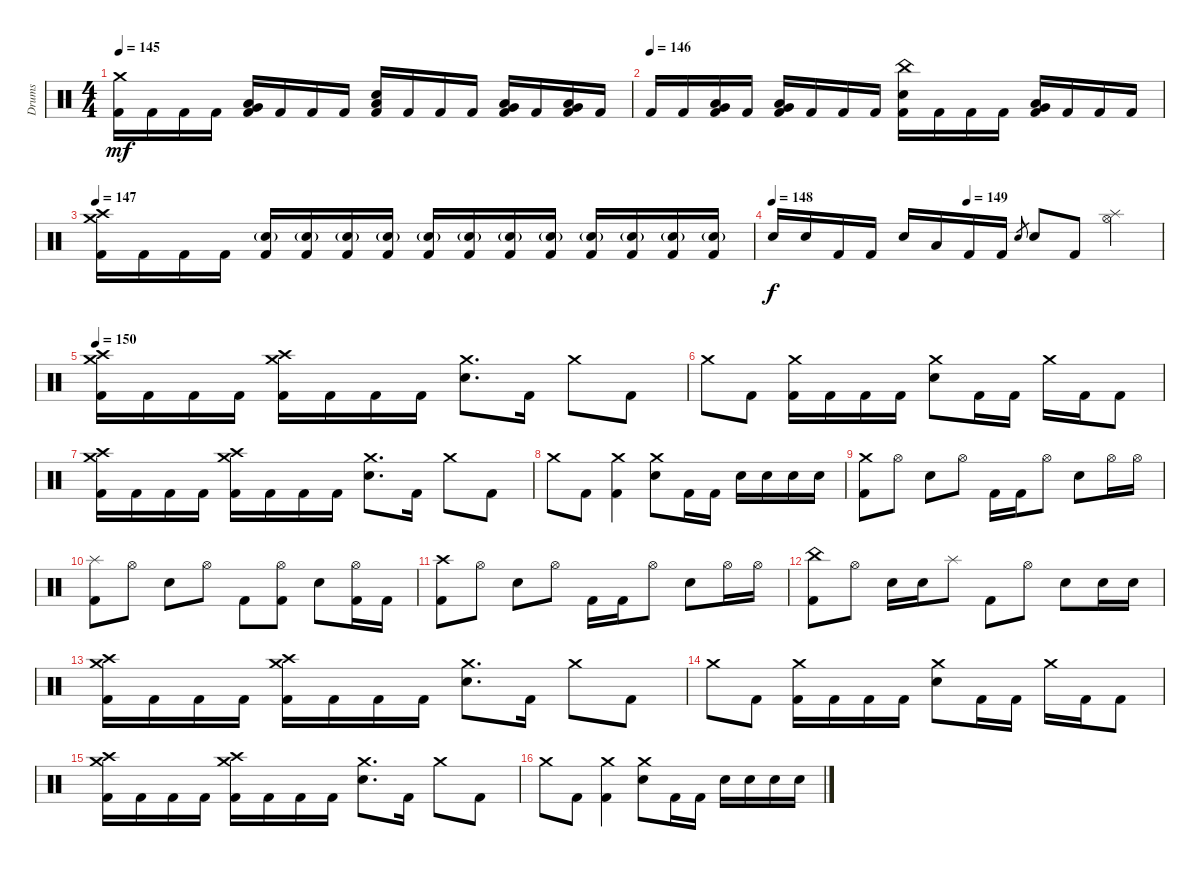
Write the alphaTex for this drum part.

\track ("Drums" "Drums") {instrument percussion}
\staff {score}
\articulation defaults
\ts (4 4)
\tempo 145
\clef neutral
\ks c
("Crash medium (hit)" "Kick (hit) 2").16{dy mf} "Kick (hit) 2".16 "Kick (hit) 2".16 "Kick (hit) 2".16 ("Low Tom (hit)" "Very Low Tom (hit)" "Kick (hit) 2").16 "Kick (hit) 2".16 "Kick (hit) 2".16 "Kick (hit) 2".16 ("Low Tom (hit)" "Electric Snare (hit)" "Kick (hit) 2").16 "Kick (hit) 2".16 "Kick (hit) 2".16 "Kick (hit) 2".16 ("Low Tom (hit)" "Very Low Tom (hit)" "Kick (hit) 2").16 "Kick (hit) 2".16 ("Low Tom (hit)" "Very Low Tom (hit)" "Kick (hit) 2").16 "Kick (hit) 2".16 |
\tempo (146)
"Kick (hit) 2".16 "Kick (hit) 2".16 ("Very Low Tom (hit)" "Low Floor Tom (hit)" "Kick (hit) 2").16 "Kick (hit) 2".16 ("Very Low Tom (hit)" "Low Floor Tom (hit)" "Kick (hit) 2").16 "Kick (hit) 2".16 "Kick (hit) 2".16 "Kick (hit) 2".16 ("China (hit)" "Electric Snare (hit)" "Kick (hit) 2").16 "Kick (hit) 2".16 "Kick (hit) 2".16 "Kick (hit) 2".16 ("Low Tom (hit)" "Very Low Tom (hit)" "Kick (hit) 2").16 "Kick (hit) 2".16 "Kick (hit) 2".16 "Kick (hit) 2".16 |
\tempo 147
("Crash medium (hit)" "Crash high (hit)" "Kick (hit) 2").16 "Kick (hit) 2".16 "Kick (hit) 2".16 "Kick (hit) 2".16 ("Electric Snare (hit)"{g} "Kick (hit) 2").16 ("Electric Snare (hit)"{g} "Kick (hit) 2").16 ("Electric Snare (hit)"{g} "Kick (hit) 2").16 ("Electric Snare (hit)"{g} "Kick (hit) 2").16 ("Electric Snare (hit)"{g} "Kick (hit) 2").16 ("Electric Snare (hit)"{g} "Kick (hit) 2").16 ("Electric Snare (hit)"{g} "Kick (hit) 2").16 ("Electric Snare (hit)"{g} "Kick (hit) 2").16 ("Electric Snare (hit)"{g} "Kick (hit) 2").16 ("Electric Snare (hit)"{g} "Kick (hit) 2").16 ("Electric Snare (hit)"{g} "Kick (hit) 2").16 ("Electric Snare (hit)"{g} "Kick (hit) 2").16 |
\tempo 148
\tempo (149 0.5)
"Electric Snare (hit)".16{dy f} "Electric Snare (hit)".16 "Kick (hit) 2".16 "Kick (hit) 2".16 "Electric Snare (hit)".16 "Low Tom (hit)".16 "Kick (hit) 2".16 "Kick (hit) 2".16 "Electric Snare (hit)".8{gr} "Electric Snare (hit)".8 "Kick (hit) 2".8 ("Splash (hit)" "Hi-Hat (open)").4 |
\tempo 150
("Crash medium (hit)" "Crash high (hit)" "Kick (hit) 2").16 "Kick (hit) 2".16 "Kick (hit) 2".16 "Kick (hit) 2".16 ("Crash medium (hit)" "Crash high (hit)" "Kick (hit) 2").16 "Kick (hit) 2".16 "Kick (hit) 2".16 "Kick (hit) 2".16 ("Crash medium (hit)" "Electric Snare (hit)").8{d} "Kick (hit) 2".16 "Crash medium (hit)".8 "Kick (hit) 2".8 |
"Crash medium (hit)".8 "Kick (hit) 2".8 ("Crash medium (hit)" "Kick (hit) 2").16 "Kick (hit) 2".16 "Kick (hit) 2".16 "Kick (hit) 2".16 ("Crash medium (hit)" "Electric Snare (hit)").8 "Kick (hit) 2".16 "Kick (hit) 2".16 "Crash medium (hit)".16 "Kick (hit) 2".16 "Kick (hit) 2".8 |
("Crash medium (hit)" "Crash high (hit)" "Kick (hit) 2").16 "Kick (hit) 2".16 "Kick (hit) 2".16 "Kick (hit) 2".16 ("Crash medium (hit)" "Crash high (hit)" "Kick (hit) 2").16 "Kick (hit) 2".16 "Kick (hit) 2".16 "Kick (hit) 2".16 ("Crash medium (hit)" "Electric Snare (hit)").8{d} "Kick (hit) 2".16 "Crash medium (hit)".8 "Kick (hit) 2".8 |
"Crash medium (hit)".8 "Kick (hit) 2".8 ("Crash medium (hit)" "Kick (hit) 2").4 ("Crash medium (hit)" "Electric Snare (hit)").8 "Kick (hit) 2".16 "Kick (hit) 2".16 "Electric Snare (hit)".16 "Electric Snare (hit)".16 "Electric Snare (hit)".16 "Electric Snare (hit)".16 |
("Crash medium (hit)" "Kick (hit) 2").8 "Hi-Hat (open)".8 "Electric Snare (hit)".8 "Hi-Hat (open)".8 "Kick (hit) 2".16 "Kick (hit) 2".16 "Hi-Hat (open)".8 "Electric Snare (hit)".8 "Hi-Hat (open)".16 "Hi-Hat (open)".16 |
("Splash (hit)" "Kick (hit) 2").8 "Hi-Hat (open)".8 "Electric Snare (hit)".8 "Hi-Hat (open)".8 "Kick (hit) 2".8 ("Hi-Hat (open)" "Kick (hit) 2").8 "Electric Snare (hit)".8 ("Hi-Hat (open)" "Kick (hit) 2").16 "Kick (hit) 2".16 |
("Crash high (hit)" "Kick (hit) 2").8 "Hi-Hat (open)".8 "Electric Snare (hit)".8 "Hi-Hat (open)".8 "Kick (hit) 2".16 "Kick (hit) 2".16 "Hi-Hat (open)".8 "Electric Snare (hit)".8 "Hi-Hat (open)".16 "Hi-Hat (open)".16 |
("China (hit)" "Kick (hit) 2").8 "Hi-Hat (open)".8 "Electric Snare (hit)".16 "Electric Snare (hit)".16 "Splash (hit)".8 "Kick (hit) 2".8 "Hi-Hat (open)".8 "Electric Snare (hit)".8 "Electric Snare (hit)".16 "Electric Snare (hit)".16 |
("Crash medium (hit)" "Crash high (hit)" "Kick (hit) 2").16 "Kick (hit) 2".16 "Kick (hit) 2".16 "Kick (hit) 2".16 ("Crash medium (hit)" "Crash high (hit)" "Kick (hit) 2").16 "Kick (hit) 2".16 "Kick (hit) 2".16 "Kick (hit) 2".16 ("Crash medium (hit)" "Electric Snare (hit)").8{d} "Kick (hit) 2".16 "Crash medium (hit)".8 "Kick (hit) 2".8 |
"Crash medium (hit)".8 "Kick (hit) 2".8 ("Crash medium (hit)" "Kick (hit) 2").16 "Kick (hit) 2".16 "Kick (hit) 2".16 "Kick (hit) 2".16 ("Crash medium (hit)" "Electric Snare (hit)").8 "Kick (hit) 2".16 "Kick (hit) 2".16 "Crash medium (hit)".16 "Kick (hit) 2".16 "Kick (hit) 2".8 |
("Crash medium (hit)" "Crash high (hit)" "Kick (hit) 2").16 "Kick (hit) 2".16 "Kick (hit) 2".16 "Kick (hit) 2".16 ("Crash medium (hit)" "Crash high (hit)" "Kick (hit) 2").16 "Kick (hit) 2".16 "Kick (hit) 2".16 "Kick (hit) 2".16 ("Crash medium (hit)" "Electric Snare (hit)").8{d} "Kick (hit) 2".16 "Crash medium (hit)".8 "Kick (hit) 2".8 |
"Crash medium (hit)".8 "Kick (hit) 2".8 ("Crash medium (hit)" "Kick (hit) 2").4 ("Crash medium (hit)" "Electric Snare (hit)").8 "Kick (hit) 2".16 "Kick (hit) 2".16 "Electric Snare (hit)".16 "Electric Snare (hit)".16 "Electric Snare (hit)".16 "Electric Snare (hit)".16
